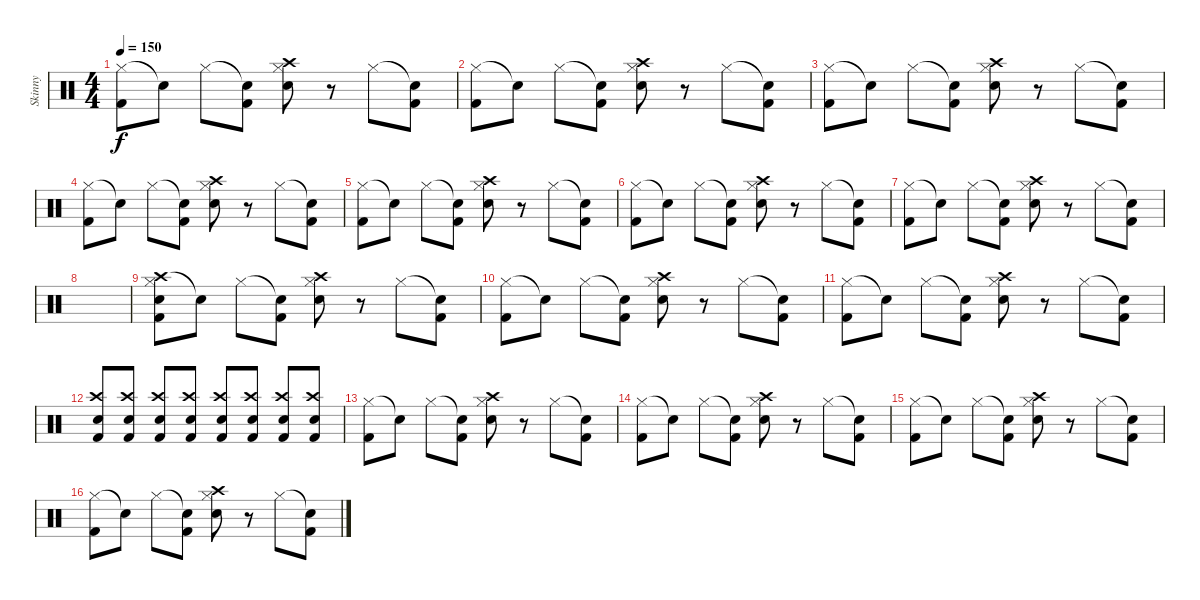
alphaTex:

\track ("Skinny" "Skinny") {instrument percussion}
\staff {score}
\articulation defaults
\ts (4 4)
\tempo 150
\clef neutral
\ks c
("Hi-Hat (closed)" "Kick (hit) 2").8{dy f} "Snare (hit)"{t}.8 "Hi-Hat (closed)".8 ("Snare (hit)"{t} "Kick (hit) 2").8 ("Crash high (hit)" "Hi-Hat (closed)" "Electric Snare (hit)").8 r.8 "Hi-Hat (closed)".8 ("Snare (hit)"{t} "Kick (hit) 2").8 |
("Hi-Hat (closed)" "Kick (hit) 2").8 "Snare (hit)"{t}.8 "Hi-Hat (closed)".8 ("Snare (hit)"{t} "Kick (hit) 2").8 ("Crash high (hit)" "Hi-Hat (closed)" "Electric Snare (hit)").8 r.8 "Hi-Hat (closed)".8 ("Snare (hit)"{t} "Kick (hit) 2").8 |
("Hi-Hat (closed)" "Kick (hit) 2").8 "Snare (hit)"{t}.8 "Hi-Hat (closed)".8 ("Snare (hit)"{t} "Kick (hit) 2").8 ("Crash high (hit)" "Hi-Hat (closed)" "Electric Snare (hit)").8 r.8 "Hi-Hat (closed)".8 ("Snare (hit)"{t} "Kick (hit) 2").8 |
("Hi-Hat (closed)" "Kick (hit) 2").8 "Snare (hit)"{t}.8 "Hi-Hat (closed)".8 ("Snare (hit)"{t} "Kick (hit) 2").8 ("Crash high (hit)" "Hi-Hat (closed)" "Electric Snare (hit)").8 r.8 "Hi-Hat (closed)".8 ("Snare (hit)"{t} "Kick (hit) 2").8 |
("Hi-Hat (closed)" "Kick (hit) 2").8 "Snare (hit)"{t}.8 "Hi-Hat (closed)".8 ("Snare (hit)"{t} "Kick (hit) 2").8 ("Crash high (hit)" "Hi-Hat (closed)" "Electric Snare (hit)").8 r.8 "Hi-Hat (closed)".8 ("Snare (hit)"{t} "Kick (hit) 2").8 |
("Hi-Hat (closed)" "Kick (hit) 2").8 "Snare (hit)"{t}.8 "Hi-Hat (closed)".8 ("Snare (hit)"{t} "Kick (hit) 2").8 ("Crash high (hit)" "Hi-Hat (closed)" "Electric Snare (hit)").8 r.8 "Hi-Hat (closed)".8 ("Snare (hit)"{t} "Kick (hit) 2").8 |
("Hi-Hat (closed)" "Kick (hit) 2").8 "Snare (hit)"{t}.8 "Hi-Hat (closed)".8 ("Snare (hit)"{t} "Kick (hit) 2").8 ("Crash high (hit)" "Hi-Hat (closed)" "Electric Snare (hit)").8 r.8 "Hi-Hat (closed)".8 ("Snare (hit)"{t} "Kick (hit) 2").8 |
|
("Crash high (hit)" "Hi-Hat (closed)" "Electric Snare (hit)" "Kick (hit) 2").8 "Snare (hit)"{t}.8 "Hi-Hat (closed)".8 ("Snare (hit)"{t} "Kick (hit) 2").8 ("Crash high (hit)" "Hi-Hat (closed)" "Electric Snare (hit)").8 r.8 "Hi-Hat (closed)".8 ("Snare (hit)"{t} "Kick (hit) 2").8 |
("Hi-Hat (closed)" "Kick (hit) 2").8 "Snare (hit)"{t}.8 "Hi-Hat (closed)".8 ("Snare (hit)"{t} "Kick (hit) 2").8 ("Crash high (hit)" "Hi-Hat (closed)" "Electric Snare (hit)").8 r.8 "Hi-Hat (closed)".8 ("Snare (hit)"{t} "Kick (hit) 2").8 |
("Hi-Hat (closed)" "Kick (hit) 2").8 "Snare (hit)"{t}.8 "Hi-Hat (closed)".8 ("Snare (hit)"{t} "Kick (hit) 2").8 ("Crash high (hit)" "Hi-Hat (closed)" "Electric Snare (hit)").8 r.8 "Hi-Hat (closed)".8 ("Snare (hit)"{t} "Kick (hit) 2").8 |
("Crash high (hit)" "Electric Snare (hit)" "Kick (hit) 2").8 ("Crash high (hit)" "Electric Snare (hit)" "Kick (hit) 2").8 ("Crash high (hit)" "Electric Snare (hit)" "Kick (hit) 2").8 ("Crash high (hit)" "Electric Snare (hit)" "Kick (hit) 2").8 ("Crash high (hit)" "Electric Snare (hit)" "Kick (hit) 2").8 ("Crash high (hit)" "Electric Snare (hit)" "Kick (hit) 2").8 ("Crash high (hit)" "Electric Snare (hit)" "Kick (hit) 2").8 ("Crash high (hit)" "Electric Snare (hit)" "Kick (hit) 2").8 |
("Hi-Hat (closed)" "Kick (hit) 2").8 "Snare (hit)"{t}.8 "Hi-Hat (closed)".8 ("Snare (hit)"{t} "Kick (hit) 2").8 ("Crash high (hit)" "Hi-Hat (closed)" "Electric Snare (hit)").8 r.8 "Hi-Hat (closed)".8 ("Snare (hit)"{t} "Kick (hit) 2").8 |
("Hi-Hat (closed)" "Kick (hit) 2").8 "Snare (hit)"{t}.8 "Hi-Hat (closed)".8 ("Snare (hit)"{t} "Kick (hit) 2").8 ("Crash high (hit)" "Hi-Hat (closed)" "Electric Snare (hit)").8 r.8 "Hi-Hat (closed)".8 ("Snare (hit)"{t} "Kick (hit) 2").8 |
("Hi-Hat (closed)" "Kick (hit) 2").8 "Snare (hit)"{t}.8 "Hi-Hat (closed)".8 ("Snare (hit)"{t} "Kick (hit) 2").8 ("Crash high (hit)" "Hi-Hat (closed)" "Electric Snare (hit)").8 r.8 "Hi-Hat (closed)".8 ("Snare (hit)"{t} "Kick (hit) 2").8 |
("Hi-Hat (closed)" "Kick (hit) 2").8 "Snare (hit)"{t}.8 "Hi-Hat (closed)".8 ("Snare (hit)"{t} "Kick (hit) 2").8 ("Crash high (hit)" "Hi-Hat (closed)" "Electric Snare (hit)").8 r.8 "Hi-Hat (closed)".8 ("Snare (hit)"{t} "Kick (hit) 2").8
